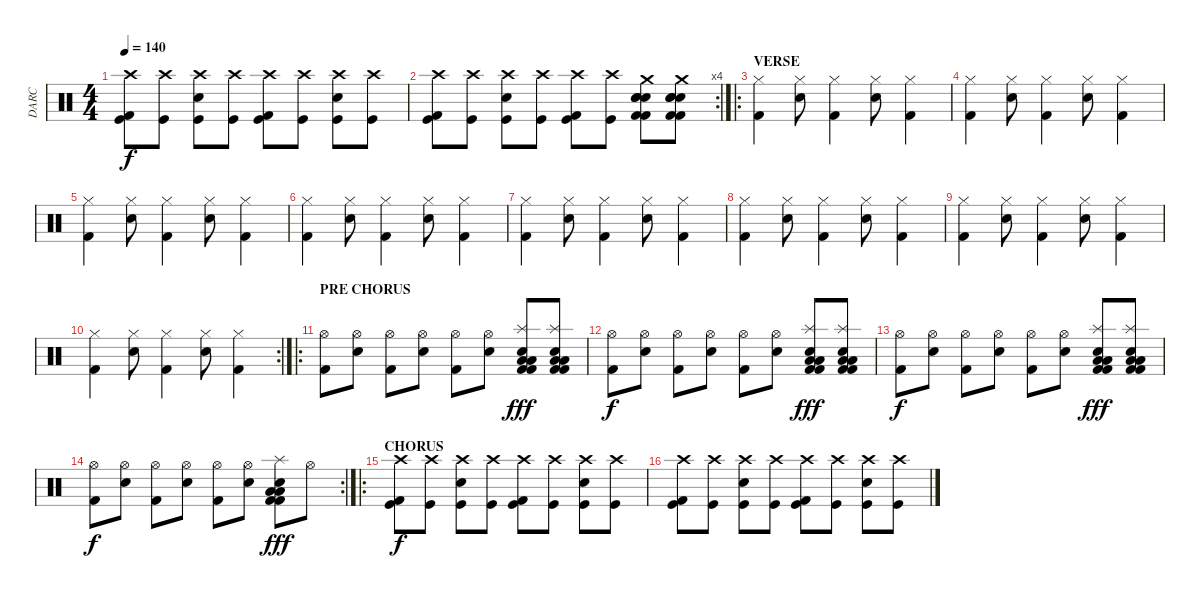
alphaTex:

\track ("DARC" "DARC") {instrument percussion}
\staff {score}
\articulation defaults
\ts (4 4)
\tempo 140
\clef neutral
\ks c
("Kick (hit)" "Crash high (hit)" "Kick (hit) 2").8{dy f} ("Kick (hit)" "Crash high (hit)").8 ("Kick (hit)" "Crash high (hit)" "Snare (hit) 2").8 ("Kick (hit)" "Crash high (hit)").8 ("Kick (hit)" "Crash high (hit)" "Kick (hit) 2").8 ("Kick (hit)" "Crash high (hit)").8 ("Kick (hit)" "Crash high (hit)" "Snare (hit) 2").8 ("Kick (hit)" "Crash high (hit)").8 |
\rc 4
("Kick (hit)" "Crash high (hit)" "Kick (hit) 2").8 ("Kick (hit)" "Crash high (hit)").8 ("Kick (hit)" "Crash high (hit)" "Snare (hit) 2").8 ("Kick (hit)" "Crash high (hit)").8 ("Kick (hit)" "Crash high (hit)" "Kick (hit) 2").8 ("Kick (hit)" "Crash high (hit)").8 ("Kick (hit) 2" "Electric Snare (hit)" "Electric Snare (hit)" "Crash medium (hit)" "Electric Snare (hit)" "Kick (hit) 2").8 ("Kick (hit) 2" "Electric Snare (hit)" "Electric Snare (hit)" "Crash medium (hit)" "Electric Snare (hit)" "Kick (hit) 2").8 |
\ro
\section ("" "VERSE")
("Hi-Hat (closed)" "Kick (hit) 2").4 ("Hi-Hat (closed)" "Electric Snare (hit)").8 ("Hi-Hat (closed)" "Kick (hit) 2").4 ("Hi-Hat (closed)" "Electric Snare (hit)").8 ("Hi-Hat (closed)" "Kick (hit) 2").4 |
("Hi-Hat (closed)" "Kick (hit) 2").4 ("Hi-Hat (closed)" "Electric Snare (hit)").8 ("Hi-Hat (closed)" "Kick (hit) 2").4 ("Hi-Hat (closed)" "Electric Snare (hit)").8 ("Hi-Hat (closed)" "Kick (hit) 2").4 |
("Hi-Hat (closed)" "Kick (hit) 2").4 ("Hi-Hat (closed)" "Electric Snare (hit)").8 ("Hi-Hat (closed)" "Kick (hit) 2").4 ("Hi-Hat (closed)" "Electric Snare (hit)").8 ("Hi-Hat (closed)" "Kick (hit) 2").4 |
("Hi-Hat (closed)" "Kick (hit) 2").4 ("Hi-Hat (closed)" "Electric Snare (hit)").8 ("Hi-Hat (closed)" "Kick (hit) 2").4 ("Hi-Hat (closed)" "Electric Snare (hit)").8 ("Hi-Hat (closed)" "Kick (hit) 2").4 |
("Hi-Hat (closed)" "Kick (hit) 2").4 ("Hi-Hat (closed)" "Electric Snare (hit)").8 ("Hi-Hat (closed)" "Kick (hit) 2").4 ("Hi-Hat (closed)" "Electric Snare (hit)").8 ("Hi-Hat (closed)" "Kick (hit) 2").4 |
("Hi-Hat (closed)" "Kick (hit) 2").4 ("Hi-Hat (closed)" "Electric Snare (hit)").8 ("Hi-Hat (closed)" "Kick (hit) 2").4 ("Hi-Hat (closed)" "Electric Snare (hit)").8 ("Hi-Hat (closed)" "Kick (hit) 2").4 |
("Hi-Hat (closed)" "Kick (hit) 2").4 ("Hi-Hat (closed)" "Electric Snare (hit)").8 ("Hi-Hat (closed)" "Kick (hit) 2").4 ("Hi-Hat (closed)" "Electric Snare (hit)").8 ("Hi-Hat (closed)" "Kick (hit) 2").4 |
\rc 2
("Hi-Hat (closed)" "Kick (hit) 2").4 ("Hi-Hat (closed)" "Electric Snare (hit)").8 ("Hi-Hat (closed)" "Kick (hit) 2").4 ("Hi-Hat (closed)" "Electric Snare (hit)").8 ("Hi-Hat (closed)" "Kick (hit) 2").4 |
\ro
\section ("" "PRE CHORUS")
("Hi-Hat (open)" "Kick (hit) 2").8 ("Hi-Hat (open)" "Electric Snare (hit)").8 ("Hi-Hat (open)" "Kick (hit) 2").8 ("Hi-Hat (open)" "Electric Snare (hit)").8 ("Hi-Hat (open)" "Kick (hit) 2").8 ("Hi-Hat (open)" "Electric Snare (hit)").8 ("Splash (hit)" "Electric Snare (hit)" "Kick (hit) 2" "Low Floor Tom (hit)" "Low Floor Tom (hit)" "Kick (hit) 2").8{dy fff} ("Splash (hit)" "Electric Snare (hit)" "Kick (hit) 2" "Low Floor Tom (hit)" "Low Floor Tom (hit)" "Kick (hit) 2").8 |
("Hi-Hat (open)" "Kick (hit) 2").8{dy f} ("Hi-Hat (open)" "Electric Snare (hit)").8 ("Hi-Hat (open)" "Kick (hit) 2").8 ("Hi-Hat (open)" "Electric Snare (hit)").8 ("Hi-Hat (open)" "Kick (hit) 2").8 ("Hi-Hat (open)" "Electric Snare (hit)").8 ("Splash (hit)" "Electric Snare (hit)" "Kick (hit) 2" "Low Floor Tom (hit)" "Low Floor Tom (hit)" "Kick (hit) 2").8{dy fff} ("Splash (hit)" "Electric Snare (hit)" "Kick (hit) 2" "Low Floor Tom (hit)" "Low Floor Tom (hit)" "Kick (hit) 2").8 |
("Hi-Hat (open)" "Kick (hit) 2").8{dy f} ("Hi-Hat (open)" "Electric Snare (hit)").8 ("Hi-Hat (open)" "Kick (hit) 2").8 ("Hi-Hat (open)" "Electric Snare (hit)").8 ("Hi-Hat (open)" "Kick (hit) 2").8 ("Hi-Hat (open)" "Electric Snare (hit)").8 ("Splash (hit)" "Electric Snare (hit)" "Kick (hit) 2" "Low Floor Tom (hit)" "Low Floor Tom (hit)" "Kick (hit) 2").8{dy fff} ("Splash (hit)" "Electric Snare (hit)" "Kick (hit) 2" "Low Floor Tom (hit)" "Low Floor Tom (hit)" "Kick (hit) 2").8 |
\rc 2
("Hi-Hat (open)" "Kick (hit) 2").8{dy f} ("Hi-Hat (open)" "Electric Snare (hit)").8 ("Hi-Hat (open)" "Kick (hit) 2").8 ("Hi-Hat (open)" "Electric Snare (hit)").8 ("Hi-Hat (open)" "Kick (hit) 2").8 ("Hi-Hat (open)" "Electric Snare (hit)").8 ("Splash (hit)" "Electric Snare (hit)" "Kick (hit) 2" "Low Floor Tom (hit)" "Low Floor Tom (hit)" "Kick (hit) 2").8{dy fff} "Hi-Hat (open)".8 |
\ro
\section ("" "CHORUS")
("Kick (hit)" "Crash high (hit)" "Kick (hit) 2").8{dy f} ("Kick (hit)" "Crash high (hit)").8 ("Kick (hit)" "Crash high (hit)" "Snare (hit) 2").8 ("Kick (hit)" "Crash high (hit)").8 ("Kick (hit)" "Crash high (hit)" "Kick (hit) 2").8 ("Kick (hit)" "Crash high (hit)").8 ("Kick (hit)" "Crash high (hit)" "Snare (hit) 2").8 ("Kick (hit)" "Crash high (hit)").8 |
("Kick (hit)" "Crash high (hit)" "Kick (hit) 2").8 ("Kick (hit)" "Crash high (hit)").8 ("Kick (hit)" "Crash high (hit)" "Snare (hit) 2").8 ("Kick (hit)" "Crash high (hit)").8 ("Kick (hit)" "Crash high (hit)" "Kick (hit) 2").8 ("Kick (hit)" "Crash high (hit)").8 ("Kick (hit)" "Crash high (hit)" "Snare (hit) 2").8 ("Kick (hit)" "Crash high (hit)").8
